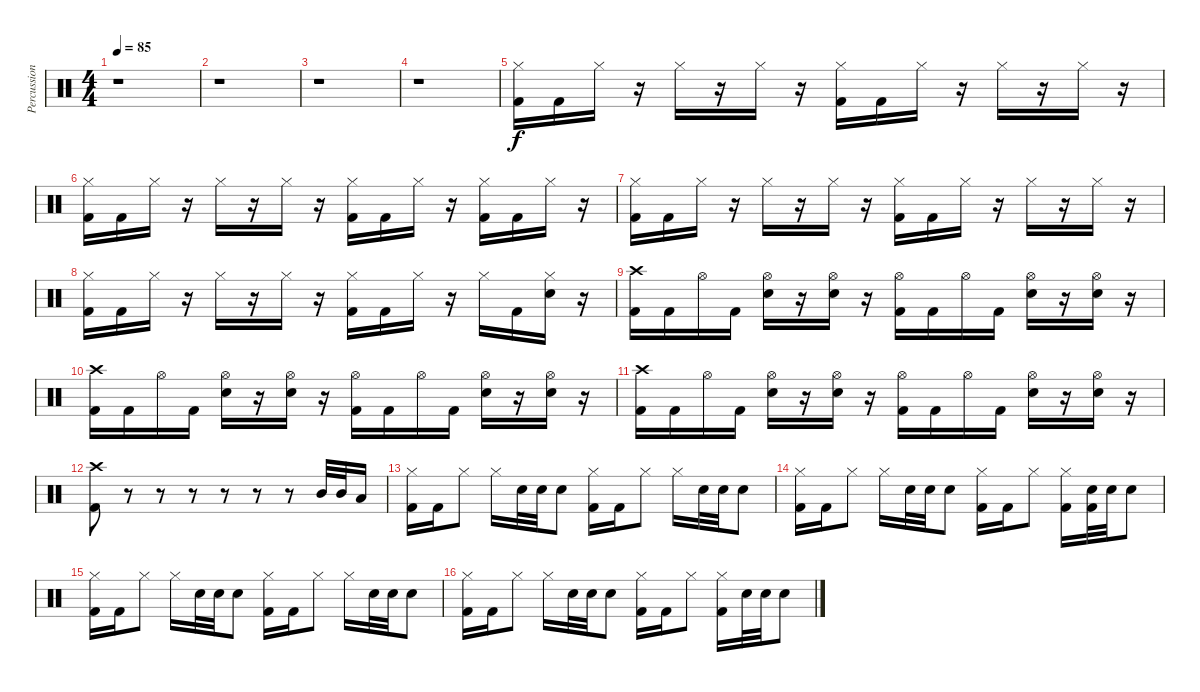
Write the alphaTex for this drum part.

\track ("Percussion" "Percussion") {instrument percussion}
\staff {score}
\articulation defaults
\ts (4 4)
\tempo 85
\clef neutral
\ks c
r.1{dy f} |
r.1 |
r.1 |
r.1 |
("Hi-Hat (closed)" "Kick (hit) 2").16 "Kick (hit) 2".16 "Hi-Hat (closed)".16 r.16 "Hi-Hat (closed)".16 r.16 "Hi-Hat (closed)".16 r.16 ("Hi-Hat (closed)" "Kick (hit) 2").16 "Kick (hit) 2".16 "Hi-Hat (closed)".16 r.16 "Hi-Hat (closed)".16 r.16 "Hi-Hat (closed)".16 r.16 |
("Hi-Hat (closed)" "Kick (hit) 2").16 "Kick (hit) 2".16 "Hi-Hat (closed)".16 r.16 "Hi-Hat (closed)".16 r.16 "Hi-Hat (closed)".16 r.16 ("Hi-Hat (closed)" "Kick (hit) 2").16 "Kick (hit) 2".16 "Hi-Hat (closed)".16 r.16 ("Hi-Hat (closed)" "Kick (hit) 2").16 "Kick (hit) 2".16 "Hi-Hat (closed)".16 r.16 |
("Hi-Hat (closed)" "Kick (hit) 2").16 "Kick (hit) 2".16 "Hi-Hat (closed)".16 r.16 "Hi-Hat (closed)".16 r.16 "Hi-Hat (closed)".16 r.16 ("Hi-Hat (closed)" "Kick (hit) 2").16 "Kick (hit) 2".16 "Hi-Hat (closed)".16 r.16 "Hi-Hat (closed)".16 r.16 "Hi-Hat (closed)".16 r.16 |
("Hi-Hat (closed)" "Kick (hit) 2").16 "Kick (hit) 2".16 "Hi-Hat (closed)".16 r.16 "Hi-Hat (closed)".16 r.16 "Hi-Hat (closed)".16 r.16 ("Hi-Hat (closed)" "Kick (hit) 2").16 "Kick (hit) 2".16 "Hi-Hat (closed)".16 r.16 "Hi-Hat (closed)".16 "Kick (hit) 2".16 ("Hi-Hat (closed)" "Snare (hit) 2").16 r.16 |
("Crash high (hit)" "Kick (hit) 2").16 "Kick (hit) 2".16 "Hi-Hat (open)".16 "Kick (hit) 2".16 ("Hi-Hat (open)" "Snare (hit) 2").16 r.16 ("Hi-Hat (open)" "Snare (hit) 2").16 r.16 ("Hi-Hat (open)" "Kick (hit) 2").16 "Kick (hit) 2".16 "Hi-Hat (open)".16 "Kick (hit) 2".16 ("Hi-Hat (open)" "Snare (hit) 2").16 r.16 ("Hi-Hat (open)" "Snare (hit) 2").16 r.16 |
("Crash high (hit)" "Kick (hit) 2").16 "Kick (hit) 2".16 "Hi-Hat (open)".16 "Kick (hit) 2".16 ("Hi-Hat (open)" "Snare (hit) 2").16 r.16 ("Hi-Hat (open)" "Snare (hit) 2").16 r.16 ("Hi-Hat (open)" "Kick (hit) 2").16 "Kick (hit) 2".16 "Hi-Hat (open)".16 "Kick (hit) 2".16 ("Hi-Hat (open)" "Snare (hit) 2").16 r.16 ("Hi-Hat (open)" "Snare (hit) 2").16 r.16 |
("Crash high (hit)" "Kick (hit) 2").16 "Kick (hit) 2".16 "Hi-Hat (open)".16 "Kick (hit) 2".16 ("Hi-Hat (open)" "Snare (hit) 2").16 r.16 ("Hi-Hat (open)" "Snare (hit) 2").16 r.16 ("Hi-Hat (open)" "Kick (hit) 2").16 "Kick (hit) 2".16 "Hi-Hat (open)".16 "Kick (hit) 2".16 ("Hi-Hat (open)" "Snare (hit) 2").16 r.16 ("Hi-Hat (open)" "Snare (hit) 2").16 r.16 |
("Crash high (hit)" "Kick (hit) 2").8 r.8 r.8 r.8 r.8 r.8 r.8 "Mid Tom (hit)".32 "Mid Tom (hit)".32 "Low Floor Tom (hit)".16 |
("Hi-Hat (closed)" "Kick (hit) 2").16 "Kick (hit) 2".16 "Hi-Hat (closed)".8 "Hi-Hat (closed)".16 "Snare (hit) 2".32 "Snare (hit) 2".32 "Snare (hit) 2".8 ("Hi-Hat (closed)" "Kick (hit) 2").16 "Kick (hit) 2".16 "Hi-Hat (closed)".8 "Hi-Hat (closed)".16 "Snare (hit) 2".32 "Snare (hit) 2".32 "Snare (hit) 2".8 |
("Hi-Hat (closed)" "Kick (hit) 2").16 "Kick (hit) 2".16 "Hi-Hat (closed)".8 "Hi-Hat (closed)".16 "Snare (hit) 2".32 "Snare (hit) 2".32 "Snare (hit) 2".8 ("Hi-Hat (closed)" "Kick (hit) 2").16 "Kick (hit) 2".16 "Hi-Hat (closed)".8 ("Hi-Hat (closed)" "Kick (hit) 2").16 ("Snare (hit) 2" "Kick (hit) 2").32 "Snare (hit) 2".32 "Snare (hit) 2".8 |
("Hi-Hat (closed)" "Kick (hit) 2").16 "Kick (hit) 2".16 "Hi-Hat (closed)".8 "Hi-Hat (closed)".16 "Snare (hit) 2".32 "Snare (hit) 2".32 "Snare (hit) 2".8 ("Hi-Hat (closed)" "Kick (hit) 2").16 "Kick (hit) 2".16 "Hi-Hat (closed)".8 "Hi-Hat (closed)".16 "Snare (hit) 2".32 "Snare (hit) 2".32 "Snare (hit) 2".8 |
("Hi-Hat (closed)" "Kick (hit) 2").16 "Kick (hit) 2".16 "Hi-Hat (closed)".8 "Hi-Hat (closed)".16 "Snare (hit) 2".32 "Snare (hit) 2".32 "Snare (hit) 2".8 ("Hi-Hat (closed)" "Kick (hit) 2").16 "Kick (hit) 2".16 "Hi-Hat (closed)".8 ("Hi-Hat (closed)" "Kick (hit) 2").16 "Snare (hit) 2".32 "Snare (hit) 2".32 "Snare (hit) 2".8
